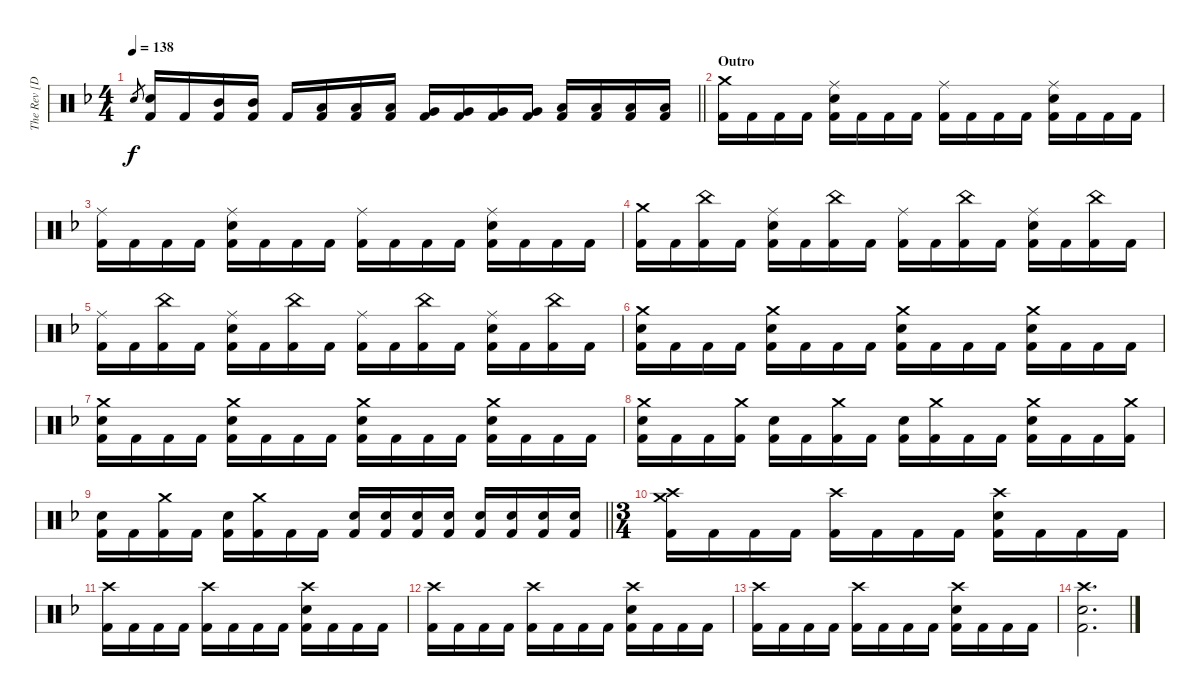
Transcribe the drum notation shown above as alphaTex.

\track ("The Rev [Drum]" "The Rev [D") {instrument percussion}
\staff {score}
\articulation defaults
\ts (4 4)
\tempo 138
\clef neutral
\barLineRight lightlight
\ks f "Electric Snare (hit)".8{gr dy f}
("Electric Snare (hit)" "Kick (hit) 2").16 "Kick (hit) 2".16 ("Mid Tom (hit)" "Kick (hit) 2").16 ("Mid Tom (hit)" "Kick (hit) 2").16 "Kick (hit) 2".16 ("Low Tom (hit)" "Kick (hit) 2").16 ("Low Tom (hit)" "Kick (hit) 2").16 ("Low Tom (hit)" "Kick (hit) 2").16 ("Very Low Tom (hit)" "Kick (hit) 2").16 ("Very Low Tom (hit)" "Kick (hit) 2").16 ("Very Low Tom (hit)" "Kick (hit) 2").16 ("Very Low Tom (hit)" "Kick (hit) 2").16 ("Low Floor Tom (hit)" "Kick (hit) 2").16 ("Low Floor Tom (hit)" "Kick (hit) 2").16 ("Low Floor Tom (hit)" "Kick (hit) 2").16 ("Low Floor Tom (hit)" "Kick (hit) 2").16 |
\section ("" "Outro")
("Crash medium (hit)" "Kick (hit) 2").16 "Kick (hit) 2".16 "Kick (hit) 2".16 "Kick (hit) 2".16 ("Ride (middle)" "Electric Snare (hit)" "Kick (hit) 2").16 "Kick (hit) 2".16 "Kick (hit) 2".16 "Kick (hit) 2".16 ("Ride (middle)" "Kick (hit) 2").16 "Kick (hit) 2".16 "Kick (hit) 2".16 "Kick (hit) 2".16 ("Ride (middle)" "Electric Snare (hit)" "Kick (hit) 2").16 "Kick (hit) 2".16 "Kick (hit) 2".16 "Kick (hit) 2".16 |
("Ride (middle)" "Kick (hit) 2").16 "Kick (hit) 2".16 "Kick (hit) 2".16 "Kick (hit) 2".16 ("Ride (middle)" "Electric Snare (hit)" "Kick (hit) 2").16 "Kick (hit) 2".16 "Kick (hit) 2".16 "Kick (hit) 2".16 ("Ride (middle)" "Kick (hit) 2").16 "Kick (hit) 2".16 "Kick (hit) 2".16 "Kick (hit) 2".16 ("Ride (middle)" "Electric Snare (hit)" "Kick (hit) 2").16 "Kick (hit) 2".16 "Kick (hit) 2".16 "Kick (hit) 2".16 |
("Crash medium (hit)" "Kick (hit) 2").16 "Kick (hit) 2".16 ("China (hit)" "Kick (hit) 2").16 "Kick (hit) 2".16 ("Ride (middle)" "Electric Snare (hit)" "Kick (hit) 2").16 "Kick (hit) 2".16 ("China (hit)" "Kick (hit) 2").16 "Kick (hit) 2".16 ("Ride (middle)" "Kick (hit) 2").16 "Kick (hit) 2".16 ("China (hit)" "Kick (hit) 2").16 "Kick (hit) 2".16 ("Ride (middle)" "Electric Snare (hit)" "Kick (hit) 2").16 "Kick (hit) 2".16 ("China (hit)" "Kick (hit) 2").16 "Kick (hit) 2".16 |
("Ride (middle)" "Kick (hit) 2").16 "Kick (hit) 2".16 ("China (hit)" "Kick (hit) 2").16 "Kick (hit) 2".16 ("Ride (middle)" "Electric Snare (hit)" "Kick (hit) 2").16 "Kick (hit) 2".16 ("China (hit)" "Kick (hit) 2").16 "Kick (hit) 2".16 ("Ride (middle)" "Kick (hit) 2").16 "Kick (hit) 2".16 ("China (hit)" "Kick (hit) 2").16 "Kick (hit) 2".16 ("Ride (middle)" "Electric Snare (hit)" "Kick (hit) 2").16 "Kick (hit) 2".16 ("China (hit)" "Kick (hit) 2").16 "Kick (hit) 2".16 |
("Crash medium (hit)" "Electric Snare (hit)" "Kick (hit) 2").16 "Kick (hit) 2".16 "Kick (hit) 2".16 "Kick (hit) 2".16 ("Crash medium (hit)" "Electric Snare (hit)" "Kick (hit) 2").16 "Kick (hit) 2".16 "Kick (hit) 2".16 "Kick (hit) 2".16 ("Crash medium (hit)" "Electric Snare (hit)" "Kick (hit) 2").16 "Kick (hit) 2".16 "Kick (hit) 2".16 "Kick (hit) 2".16 ("Crash medium (hit)" "Electric Snare (hit)" "Kick (hit) 2").16 "Kick (hit) 2".16 "Kick (hit) 2".16 "Kick (hit) 2".16 |
("Crash medium (hit)" "Electric Snare (hit)" "Kick (hit) 2").16 "Kick (hit) 2".16 "Kick (hit) 2".16 "Kick (hit) 2".16 ("Crash medium (hit)" "Electric Snare (hit)" "Kick (hit) 2").16 "Kick (hit) 2".16 "Kick (hit) 2".16 "Kick (hit) 2".16 ("Crash medium (hit)" "Electric Snare (hit)" "Kick (hit) 2").16 "Kick (hit) 2".16 "Kick (hit) 2".16 "Kick (hit) 2".16 ("Crash medium (hit)" "Electric Snare (hit)" "Kick (hit) 2").16 "Kick (hit) 2".16 "Kick (hit) 2".16 "Kick (hit) 2".16 |
("Crash medium (hit)" "Electric Snare (hit)" "Kick (hit) 2").16 "Kick (hit) 2".16 "Kick (hit) 2".16 ("Crash medium (hit)" "Kick (hit) 2").16 ("Electric Snare (hit)" "Kick (hit) 2").16 "Kick (hit) 2".16 ("Crash medium (hit)" "Kick (hit) 2").16 "Kick (hit) 2".16 ("Electric Snare (hit)" "Kick (hit) 2").16 ("Crash medium (hit)" "Kick (hit) 2").16 "Kick (hit) 2".16 "Kick (hit) 2".16 ("Crash medium (hit)" "Electric Snare (hit)" "Kick (hit) 2").16 "Kick (hit) 2".16 "Kick (hit) 2".16 ("Crash medium (hit)" "Kick (hit) 2").16 |
\barLineRight lightlight
("Electric Snare (hit)" "Kick (hit) 2").16 "Kick (hit) 2".16 ("Crash medium (hit)" "Kick (hit) 2").16 "Kick (hit) 2".16 ("Electric Snare (hit)" "Kick (hit) 2").16 ("Crash medium (hit)" "Kick (hit) 2").16 "Kick (hit) 2".16 "Kick (hit) 2".16 ("Electric Snare (hit)" "Kick (hit) 2").16 ("Electric Snare (hit)" "Kick (hit) 2").16 ("Electric Snare (hit)" "Kick (hit) 2").16 ("Electric Snare (hit)" "Kick (hit) 2").16 ("Electric Snare (hit)" "Kick (hit) 2").16 ("Electric Snare (hit)" "Kick (hit) 2").16 ("Electric Snare (hit)" "Kick (hit) 2").16 ("Electric Snare (hit)" "Kick (hit) 2").16 |
\ts (3 4)
("Crash medium (hit)" "Crash high (hit)" "Kick (hit) 2").16 "Kick (hit) 2".16 "Kick (hit) 2".16 "Kick (hit) 2".16 ("Crash high (hit)" "Kick (hit) 2").16 "Kick (hit) 2".16 "Kick (hit) 2".16 "Kick (hit) 2".16 ("Crash high (hit)" "Electric Snare (hit)" "Kick (hit) 2").16 "Kick (hit) 2".16 "Kick (hit) 2".16 "Kick (hit) 2".16 |
("Crash high (hit)" "Kick (hit) 2").16 "Kick (hit) 2".16 "Kick (hit) 2".16 "Kick (hit) 2".16 ("Crash high (hit)" "Kick (hit) 2").16 "Kick (hit) 2".16 "Kick (hit) 2".16 "Kick (hit) 2".16 ("Crash high (hit)" "Electric Snare (hit)" "Kick (hit) 2").16 "Kick (hit) 2".16 "Kick (hit) 2".16 "Kick (hit) 2".16 |
("Crash high (hit)" "Kick (hit) 2").16 "Kick (hit) 2".16 "Kick (hit) 2".16 "Kick (hit) 2".16 ("Crash high (hit)" "Kick (hit) 2").16 "Kick (hit) 2".16 "Kick (hit) 2".16 "Kick (hit) 2".16 ("Crash high (hit)" "Electric Snare (hit)" "Kick (hit) 2").16 "Kick (hit) 2".16 "Kick (hit) 2".16 "Kick (hit) 2".16 |
("Crash high (hit)" "Kick (hit) 2").16 "Kick (hit) 2".16 "Kick (hit) 2".16 "Kick (hit) 2".16 ("Crash high (hit)" "Kick (hit) 2").16 "Kick (hit) 2".16 "Kick (hit) 2".16 "Kick (hit) 2".16 ("Crash high (hit)" "Electric Snare (hit)" "Kick (hit) 2").16 "Kick (hit) 2".16 "Kick (hit) 2".16 "Kick (hit) 2".16 |
("Crash high (hit)" "Electric Snare (hit)" "Kick (hit) 2").2{d}
